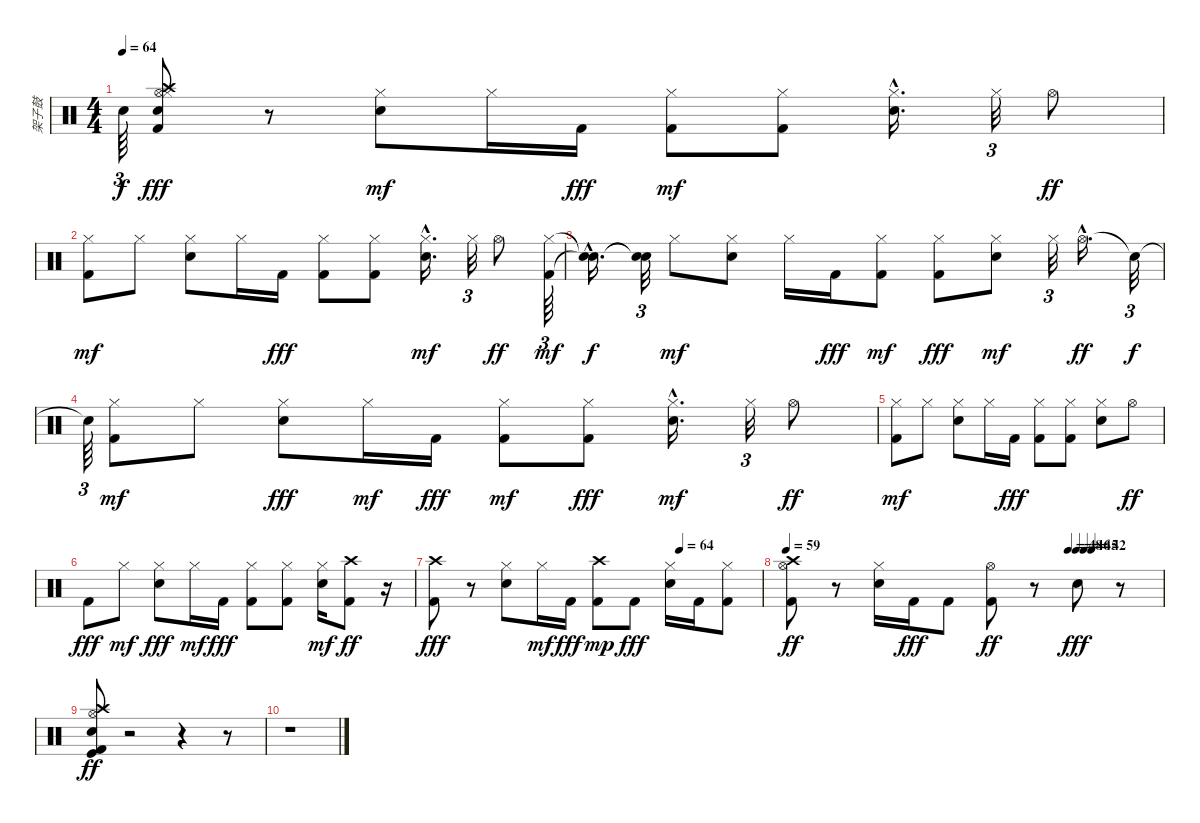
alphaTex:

\track ("架子鼓" "架子鼓") {instrument percussion}
\staff {score}
\articulation defaults
\ts (4 4)
\tempo 64
\clef neutral
\ks c "Snare (hit)"{t}.64{tu (3 2) dy f}
("Crash high (hit)" "Hi-Hat (open)" "Hi-Hat (closed)" "Snare (hit) 2" "Kick (hit) 2").8{dy fff} r.8 ("Snare (hit) 2" "Hi-Hat (closed)").8{dy mf} "Hi-Hat (closed)".16 "Kick (hit) 2".16{dy fff} ("Kick (hit) 2" "Hi-Hat (closed)").8{dy mf} ("Kick (hit) 2" "Hi-Hat (closed)").8 ("Snare (hit) 2" "Hi-Hat (closed)"{hac}).16{d} "Hi-Hat (closed)".32{tu (3 2)} "Hi-Hat (open)".8{dy ff} |
("Kick (hit) 2" "Hi-Hat (closed)").8{dy mf} "Hi-Hat (closed)".8 ("Snare (hit) 2" "Hi-Hat (closed)").8 "Hi-Hat (closed)".16 "Kick (hit) 2".16{dy fff} ("Hi-Hat (closed)" "Kick (hit) 2").8 ("Hi-Hat (closed)" "Kick (hit) 2").8 ("Snare (hit) 2" "Hi-Hat (closed)"{hac}).16{d dy mf} "Hi-Hat (closed)".32{tu (3 2)} "Hi-Hat (open)".8{dy ff} ("Kick (hit) 2" "Hi-Hat (closed)").64{tu (3 2) dy mf} |
("Snare (hit)"{hac t} "Snare (hit)"{hac t}).16{d dy f} ("Snare (hit)"{t} "Snare (hit)"{t}).32{tu (3 2)} "Hi-Hat (closed)".8{dy mf} ("Snare (hit) 2" "Hi-Hat (closed)").8 "Hi-Hat (closed)".16 "Kick (hit) 2".16{dy fff} ("Kick (hit) 2" "Hi-Hat (closed)").8{dy mf} ("Hi-Hat (closed)" "Kick (hit) 2").8{dy fff} ("Snare (hit) 2" "Hi-Hat (closed)").8{dy mf} "Hi-Hat (closed)".32{tu (3 2)} "Hi-Hat (open)"{hac}.16{d dy ff} "Snare (hit)"{t}.32{tu (3 2) dy f} |
"Snare (hit)"{t}.64{tu (3 2)} ("Kick (hit) 2" "Hi-Hat (closed)").8{dy mf} "Hi-Hat (closed)".8 ("Hi-Hat (closed)" "Snare (hit) 2").8{dy fff} "Hi-Hat (closed)".16{dy mf} "Kick (hit) 2".16{dy fff} ("Kick (hit) 2" "Hi-Hat (closed)").8{dy mf} ("Hi-Hat (closed)" "Kick (hit) 2").8{dy fff} ("Snare (hit) 2" "Hi-Hat (closed)"{hac}).16{d dy mf} "Hi-Hat (closed)".32{tu (3 2)} "Hi-Hat (open)".8{dy ff} |
("Kick (hit) 2" "Hi-Hat (closed)").8{dy mf} "Hi-Hat (closed)".8 ("Snare (hit) 2" "Hi-Hat (closed)").8 "Hi-Hat (closed)".16 "Kick (hit) 2".16{dy fff} ("Hi-Hat (closed)" "Kick (hit) 2").8 ("Hi-Hat (closed)" "Kick (hit) 2").8 ("Hi-Hat (closed)" "Snare (hit) 2").8 "Hi-Hat (open)".8{dy ff} |
"Kick (hit) 2".8{dy fff} "Hi-Hat (closed)".8{dy mf} ("Hi-Hat (closed)" "Snare (hit) 2").8{dy fff} "Hi-Hat (closed)".16{dy mf} "Kick (hit) 2".16{dy fff} ("Hi-Hat (closed)" "Kick (hit) 2").8 ("Hi-Hat (closed)" "Kick (hit) 2").8 ("Snare (hit) 2" "Hi-Hat (closed)").16{dy mf} ("Kick (hit) 2" "Crash high (hit)").8{dy ff} r.16 |
\tempo (64 0.75)
("Crash high (hit)" "Kick (hit) 2").8{dy fff} r.8 ("Hi-Hat (closed)" "Snare (hit) 2").8 "Hi-Hat (closed)".16{dy mf} "Kick (hit) 2".16{dy fff} ("Kick (hit) 2" "Crash high (hit)").8{dy mp} "Kick (hit) 2".8{dy fff} ("Snare (hit) 2" "Hi-Hat (closed)").16 "Kick (hit) 2".16 ("Hi-Hat (closed)" "Kick (hit) 2").8 |
\tempo 59
\tempo (48 0.75)
\tempo (46 0.7708333333333334)
\tempo (45 0.7916666666666666)
\tempo (42 0.8125)
("Crash high (hit)" "Kick (hit) 2" "Hi-Hat (open)").8{dy ff} r.8 ("Snare (hit) 2" "Hi-Hat (closed)").16 "Kick (hit) 2".16{dy fff} "Kick (hit) 2".8 ("Kick (hit) 2" "Hi-Hat (open)").8{dy ff} r.8 "Snare (hit) 2".8{dy fff} r.8 |
("Snare (hit) 2" "Kick (hit)" "Kick (hit) 2" "Hi-Hat (open)" "Crash high (hit)").8{dy ff} r.2 r.4 r.8 |
r.1
